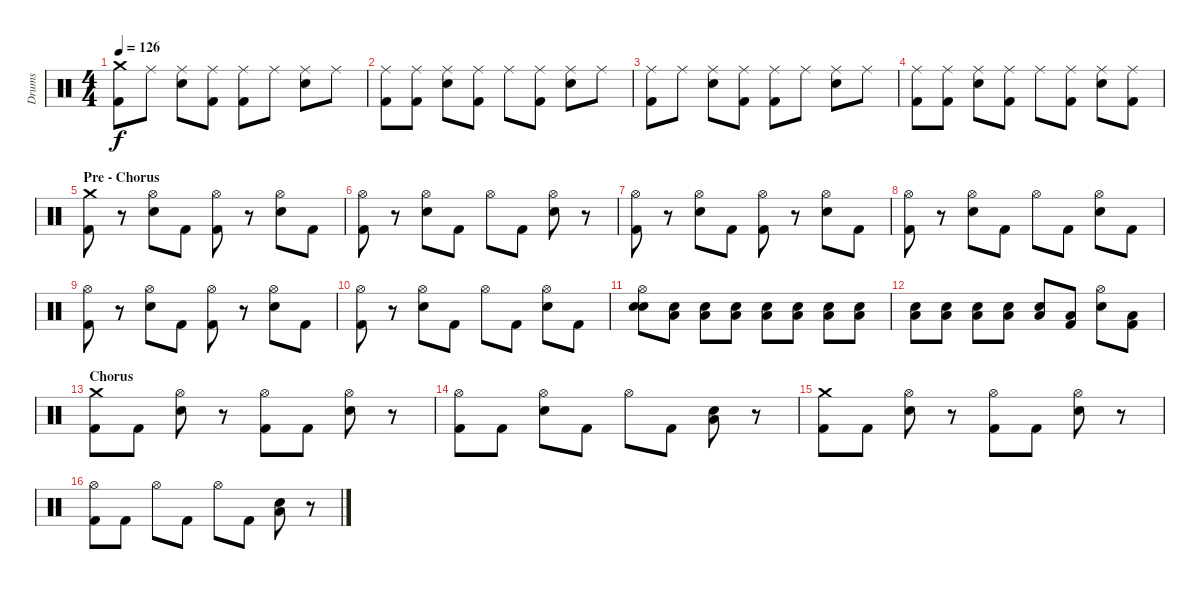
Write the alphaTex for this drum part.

\track ("Drums" "Drums") {instrument percussion}
\staff {score}
\articulation defaults
\ts (4 4)
\tempo 126
\clef neutral
\ks c
("Crash medium (hit)" "Kick (hit) 2").8{dy f} "Ride (middle)".8 ("Ride (middle)" "Snare (hit) 2").8 ("Ride (middle)" "Kick (hit) 2").8 ("Ride (middle)" "Kick (hit) 2").8 "Ride (middle)".8 ("Ride (middle)" "Snare (hit) 2").8 "Ride (middle)".8 |
("Ride (middle)" "Kick (hit) 2").8 ("Ride (middle)" "Kick (hit) 2").8 ("Ride (middle)" "Snare (hit) 2").8 ("Ride (middle)" "Kick (hit) 2").8 "Ride (middle)".8 ("Ride (middle)" "Kick (hit) 2").8 ("Ride (middle)" "Snare (hit) 2").8 "Ride (middle)".8 |
("Ride (middle)" "Kick (hit) 2").8 "Ride (middle)".8 ("Ride (middle)" "Snare (hit) 2").8 ("Ride (middle)" "Kick (hit) 2").8 ("Ride (middle)" "Kick (hit) 2").8 "Ride (middle)".8 ("Ride (middle)" "Snare (hit) 2").8 "Ride (middle)".8 |
("Ride (middle)" "Kick (hit) 2").8 ("Ride (middle)" "Kick (hit) 2").8 ("Ride (middle)" "Snare (hit) 2").8 ("Ride (middle)" "Kick (hit) 2").8 "Ride (middle)".8 ("Ride (middle)" "Kick (hit) 2").8 ("Ride (middle)" "Snare (hit) 2").8 ("Ride (middle)" "Kick (hit) 2").8 |
\section ("" "Pre - Chorus")
("Crash medium (hit)" "Kick (hit) 2").8 r.8 ("Hi-Hat (open)" "Snare (hit) 2").8 "Kick (hit) 2".8 ("Hi-Hat (open)" "Kick (hit) 2").8 r.8 ("Hi-Hat (open)" "Snare (hit) 2").8 "Kick (hit) 2".8 |
("Hi-Hat (open)" "Kick (hit) 2").8 r.8 ("Hi-Hat (open)" "Snare (hit) 2").8 "Kick (hit) 2".8 "Hi-Hat (open)".8 "Kick (hit) 2".8 ("Hi-Hat (open)" "Snare (hit) 2").8 r.8 |
("Hi-Hat (open)" "Kick (hit) 2").8 r.8 ("Hi-Hat (open)" "Snare (hit) 2").8 "Kick (hit) 2".8 ("Hi-Hat (open)" "Kick (hit) 2").8 r.8 ("Hi-Hat (open)" "Snare (hit) 2").8 "Kick (hit) 2".8 |
("Hi-Hat (open)" "Kick (hit) 2").8 r.8 ("Hi-Hat (open)" "Snare (hit) 2").8 "Kick (hit) 2".8 "Hi-Hat (open)".8 "Kick (hit) 2".8 ("Hi-Hat (open)" "Snare (hit) 2").8 "Kick (hit) 2".8 |
("Hi-Hat (open)" "Kick (hit) 2").8 r.8 ("Hi-Hat (open)" "Snare (hit) 2").8 "Kick (hit) 2".8 ("Hi-Hat (open)" "Kick (hit) 2").8 r.8 ("Hi-Hat (open)" "Snare (hit) 2").8 "Kick (hit) 2".8 |
("Hi-Hat (open)" "Kick (hit) 2").8 r.8 ("Hi-Hat (open)" "Snare (hit) 2").8 "Kick (hit) 2".8 "Hi-Hat (open)".8 "Kick (hit) 2".8 ("Hi-Hat (open)" "Snare (hit) 2").8 "Kick (hit) 2".8 |
("Hi-Hat (open)" "Snare (hit) 2" "Electric Snare (hit)").8 ("Snare (hit) 2" "Low Tom (hit)").8{volume 7} ("Snare (hit) 2" "Low Tom (hit)").8{volume 16} ("Snare (hit) 2" "Low Tom (hit)").8 ("Snare (hit) 2" "Low Tom (hit)").8 ("Snare (hit) 2" "Low Tom (hit)").8 ("Snare (hit) 2" "Low Tom (hit)").8 ("Snare (hit) 2" "Low Tom (hit)").8 |
("Snare (hit) 2" "Low Tom (hit)").8 ("Snare (hit) 2" "Low Tom (hit)").8 ("Snare (hit) 2" "Low Tom (hit)").8 ("Snare (hit) 2" "Low Tom (hit)").8 ("Snare (hit) 2" "Low Tom (hit)").8 ("Kick (hit) 2" "Low Tom (hit)").8 ("Hi-Hat (open)" "Snare (hit) 2").8 ("Kick (hit) 2" "Low Tom (hit)").8 |
\section ("" "Chorus")
("Crash medium (hit)" "Kick (hit) 2").8 "Kick (hit) 2".8 ("Hi-Hat (open)" "Snare (hit) 2").8 r.8 ("Hi-Hat (open)" "Kick (hit) 2").8 "Kick (hit) 2".8 ("Hi-Hat (open)" "Snare (hit) 2").8 r.8 |
("Hi-Hat (open)" "Kick (hit) 2").8 "Kick (hit) 2".8 ("Hi-Hat (open)" "Snare (hit) 2").8 "Kick (hit) 2".8 "Hi-Hat (open)".8 "Kick (hit) 2".8 ("Snare (hit) 2" "Low Tom (hit)").8 r.8 |
("Crash medium (hit)" "Kick (hit) 2").8 "Kick (hit) 2".8 ("Hi-Hat (open)" "Snare (hit) 2").8 r.8 ("Hi-Hat (open)" "Kick (hit) 2").8 "Kick (hit) 2".8 ("Hi-Hat (open)" "Snare (hit) 2").8 r.8 |
("Hi-Hat (open)" "Kick (hit) 2").8 "Kick (hit) 2".8 "Hi-Hat (open)".8 "Kick (hit) 2".8 "Hi-Hat (open)".8 "Kick (hit) 2".8 ("Snare (hit) 2" "Low Tom (hit)").8 r.8
